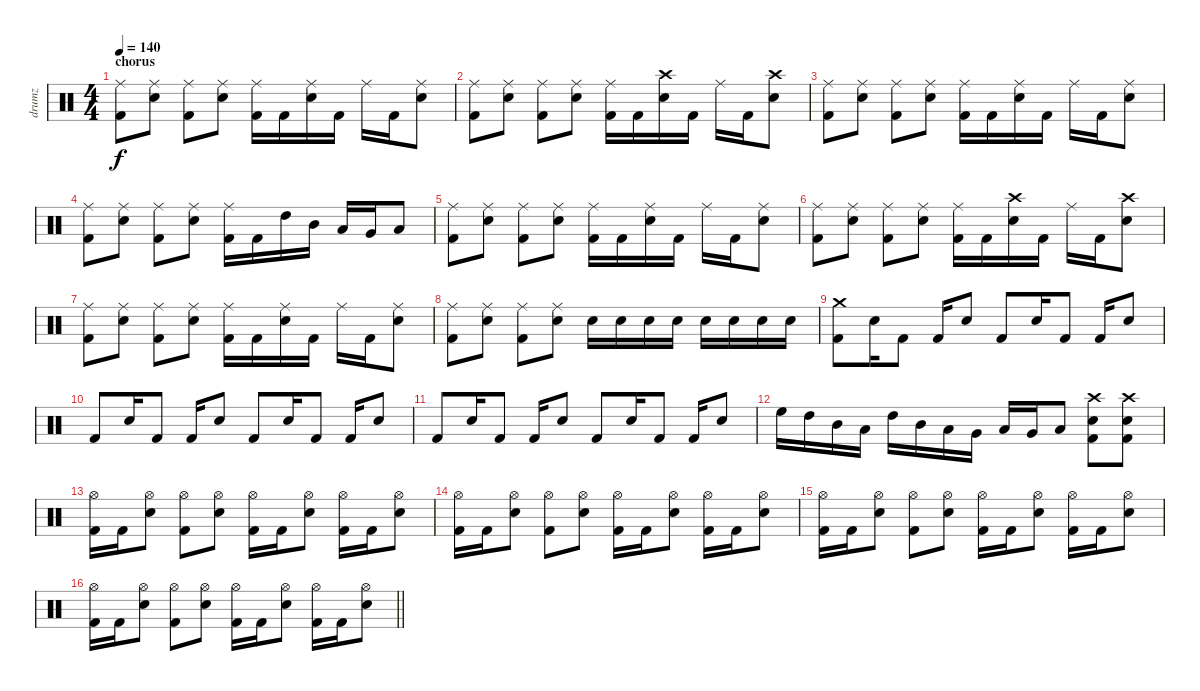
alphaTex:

\track ("drumz" "drumz") {instrument percussion}
\staff {score}
\articulation defaults
\ts (4 4)
\section ("" "chorus")
\tempo 140
\clef neutral
\ks c
("Ride (middle)" "Kick (hit) 2").8{dy f} ("Ride (middle)" "Electric Snare (hit)").8 ("Ride (middle)" "Kick (hit) 2").8 ("Ride (middle)" "Electric Snare (hit)").8 ("Ride (middle)" "Kick (hit) 2").16 "Kick (hit) 2".16 ("Ride (middle)" "Electric Snare (hit)").16 "Kick (hit) 2".16 "Ride (middle)".16 "Kick (hit) 2".16 ("Ride (middle)" "Electric Snare (hit)").8 |
("Ride (middle)" "Kick (hit) 2").8 ("Ride (middle)" "Electric Snare (hit)").8 ("Ride (middle)" "Kick (hit) 2").8 ("Ride (middle)" "Electric Snare (hit)").8 ("Ride (middle)" "Kick (hit) 2").16 "Kick (hit) 2".16 ("Crash high (hit)" "Electric Snare (hit)").16 "Kick (hit) 2".16 "Ride (middle)".16 "Kick (hit) 2".16 ("Crash high (hit)" "Electric Snare (hit)").8 |
("Ride (middle)" "Kick (hit) 2").8 ("Ride (middle)" "Electric Snare (hit)").8 ("Ride (middle)" "Kick (hit) 2").8 ("Ride (middle)" "Electric Snare (hit)").8 ("Ride (middle)" "Kick (hit) 2").16 "Kick (hit) 2".16 ("Ride (middle)" "Electric Snare (hit)").16 "Kick (hit) 2".16 "Ride (middle)".16 "Kick (hit) 2".16 ("Ride (middle)" "Electric Snare (hit)").8 |
("Ride (middle)" "Kick (hit) 2").8 ("Ride (middle)" "Electric Snare (hit)").8 ("Ride (middle)" "Kick (hit) 2").8 ("Ride (middle)" "Electric Snare (hit)").8 ("Ride (middle)" "Kick (hit) 2").16 "Kick (hit) 2".16 "High Tom (hit)".16 "Mid Tom (hit)".16 "Low Tom (hit)".16 "Very Low Tom (hit)".16 "Low Floor Tom (hit)".8 |
("Ride (middle)" "Kick (hit) 2").8 ("Ride (middle)" "Electric Snare (hit)").8 ("Ride (middle)" "Kick (hit) 2").8 ("Ride (middle)" "Electric Snare (hit)").8 ("Ride (middle)" "Kick (hit) 2").16 "Kick (hit) 2".16 ("Ride (middle)" "Electric Snare (hit)").16 "Kick (hit) 2".16 "Ride (middle)".16 "Kick (hit) 2".16 ("Ride (middle)" "Electric Snare (hit)").8 |
("Ride (middle)" "Kick (hit) 2").8 ("Ride (middle)" "Electric Snare (hit)").8 ("Ride (middle)" "Kick (hit) 2").8 ("Ride (middle)" "Electric Snare (hit)").8 ("Ride (middle)" "Kick (hit) 2").16 "Kick (hit) 2".16 ("Crash high (hit)" "Electric Snare (hit)").16 "Kick (hit) 2".16 "Ride (middle)".16 "Kick (hit) 2".16 ("Crash high (hit)" "Electric Snare (hit)").8 |
("Ride (middle)" "Kick (hit) 2").8 ("Ride (middle)" "Electric Snare (hit)").8 ("Ride (middle)" "Kick (hit) 2").8 ("Ride (middle)" "Electric Snare (hit)").8 ("Ride (middle)" "Kick (hit) 2").16 "Kick (hit) 2".16 ("Ride (middle)" "Electric Snare (hit)").16 "Kick (hit) 2".16 "Ride (middle)".16 "Kick (hit) 2".16 ("Ride (middle)" "Electric Snare (hit)").8 |
("Ride (middle)" "Kick (hit) 2").8 ("Ride (middle)" "Electric Snare (hit)").8 ("Ride (middle)" "Kick (hit) 2").8 ("Ride (middle)" "Electric Snare (hit)").8 "Electric Snare (hit)".16 "Electric Snare (hit)".16 "Electric Snare (hit)".16 "Electric Snare (hit)".16 "Electric Snare (hit)".16 "Electric Snare (hit)".16 "Electric Snare (hit)".16 "Electric Snare (hit)".16 |
("Crash medium (hit)" "Kick (hit) 2").8 "Electric Snare (hit)".16 "Kick (hit) 2".8 "Kick (hit) 2".16 "Electric Snare (hit)".8 "Kick (hit) 2".8 "Electric Snare (hit)".16 "Kick (hit) 2".8 "Kick (hit) 2".16 "Electric Snare (hit)".8 |
"Kick (hit) 2".8 "Electric Snare (hit)".16 "Kick (hit) 2".8 "Kick (hit) 2".16 "Electric Snare (hit)".8 "Kick (hit) 2".8 "Electric Snare (hit)".16 "Kick (hit) 2".8 "Kick (hit) 2".16 "Electric Snare (hit)".8 |
"Kick (hit) 2".8 "Electric Snare (hit)".16 "Kick (hit) 2".8 "Kick (hit) 2".16 "Electric Snare (hit)".8 "Kick (hit) 2".8 "Electric Snare (hit)".16 "Kick (hit) 2".8 "Kick (hit) 2".16 "Electric Snare (hit)".8 |
"High Floor Tom (hit)".16 "High Tom (hit)".16 "Mid Tom (hit)".16 "Low Tom (hit)".16 "High Tom (hit)".16 "Mid Tom (hit)".16 "Low Tom (hit)".16 "Very Low Tom (hit)".16 "Low Tom (hit)".16 "Very Low Tom (hit)".16 "Low Floor Tom (hit)".8 ("Crash high (hit)" "Electric Snare (hit)" "Kick (hit) 2").8 ("Crash high (hit)" "Electric Snare (hit)" "Kick (hit) 2").8 |
("Hi-Hat (open)" "Kick (hit) 2").16 "Kick (hit) 2".16 ("Hi-Hat (open)" "Electric Snare (hit)").8 ("Hi-Hat (open)" "Kick (hit) 2").8 ("Hi-Hat (open)" "Electric Snare (hit)").8 ("Hi-Hat (open)" "Kick (hit) 2").16 "Kick (hit) 2".16 ("Hi-Hat (open)" "Electric Snare (hit)").8 ("Hi-Hat (open)" "Kick (hit) 2").16 "Kick (hit) 2".16 ("Hi-Hat (open)" "Electric Snare (hit)").8 |
("Hi-Hat (open)" "Kick (hit) 2").16 "Kick (hit) 2".16 ("Hi-Hat (open)" "Electric Snare (hit)").8 ("Hi-Hat (open)" "Kick (hit) 2").8 ("Hi-Hat (open)" "Electric Snare (hit)").8 ("Hi-Hat (open)" "Kick (hit) 2").16 "Kick (hit) 2".16 ("Hi-Hat (open)" "Electric Snare (hit)").8 ("Hi-Hat (open)" "Kick (hit) 2").16 "Kick (hit) 2".16 ("Hi-Hat (open)" "Electric Snare (hit)").8 |
("Hi-Hat (open)" "Kick (hit) 2").16 "Kick (hit) 2".16 ("Hi-Hat (open)" "Electric Snare (hit)").8 ("Hi-Hat (open)" "Kick (hit) 2").8 ("Hi-Hat (open)" "Electric Snare (hit)").8 ("Hi-Hat (open)" "Kick (hit) 2").16 "Kick (hit) 2".16 ("Hi-Hat (open)" "Electric Snare (hit)").8 ("Hi-Hat (open)" "Kick (hit) 2").16 "Kick (hit) 2".16 ("Hi-Hat (open)" "Electric Snare (hit)").8 |
\barLineRight lightlight
("Hi-Hat (open)" "Kick (hit) 2").16 "Kick (hit) 2".16 ("Hi-Hat (open)" "Electric Snare (hit)").8 ("Hi-Hat (open)" "Kick (hit) 2").8 ("Hi-Hat (open)" "Electric Snare (hit)").8 ("Hi-Hat (open)" "Kick (hit) 2").16 "Kick (hit) 2".16 ("Hi-Hat (open)" "Electric Snare (hit)").8 ("Hi-Hat (open)" "Kick (hit) 2").16 "Kick (hit) 2".16 ("Hi-Hat (open)" "Electric Snare (hit)").8
